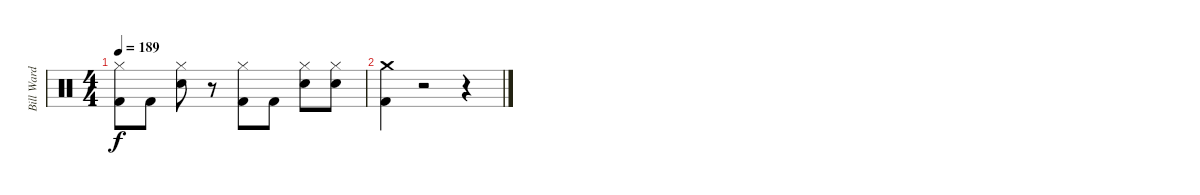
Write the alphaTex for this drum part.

\track ("Bill Ward" "Bill Ward") {instrument percussion}
\staff {score}
\articulation defaults
\ts (4 4)
\tempo 189
\clef neutral
\ks c
("Hi-Hat (closed)" "Kick (hit) 2").8{dy f} "Kick (hit) 2".8 ("Hi-Hat (closed)" "Electric Snare (hit)").8 r.8 ("Hi-Hat (closed)" "Kick (hit) 2").8 "Kick (hit) 2".8 ("Hi-Hat (closed)" "Electric Snare (hit)").8 ("Electric Snare (hit)" "Hi-Hat (closed)").8 |
("Kick (hit) 2" "Crash medium (hit)").4 r.2 r.4
